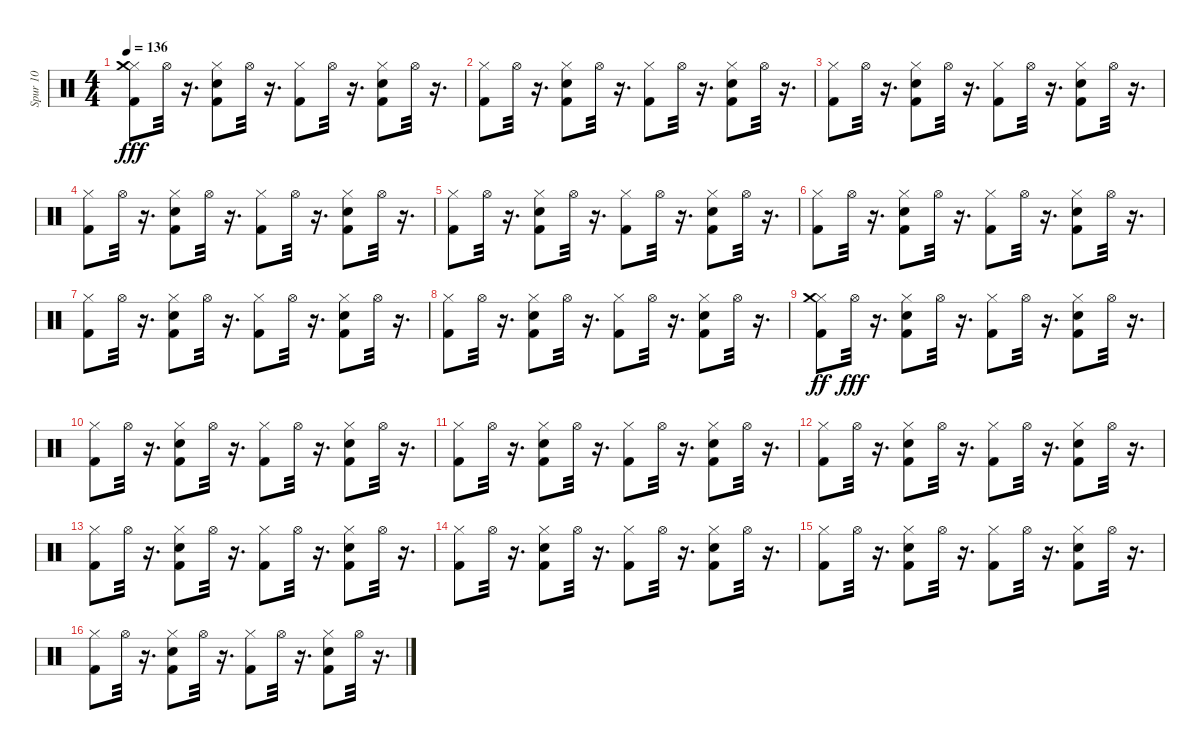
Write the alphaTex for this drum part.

\track ("Spur 10" "Spur 10") {instrument percussion}
\staff {score}
\articulation defaults
\ts (4 4)
\tempo 136
\clef neutral
\ks c
("Hi-Hat (closed)" "Kick (hit) 2" "Crash medium (hit)").8{dy fff} "Hi-Hat (open)".32 r.16{d} ("Snare (hit) 2" "Hi-Hat (closed)" "Kick (hit) 2").8 "Hi-Hat (open)".32 r.16{d} ("Hi-Hat (closed)" "Kick (hit) 2").8 "Hi-Hat (open)".32 r.16{d} ("Snare (hit) 2" "Hi-Hat (closed)" "Kick (hit) 2").8 "Hi-Hat (open)".32 r.16{d} |
("Hi-Hat (closed)" "Kick (hit) 2").8 "Hi-Hat (open)".32 r.16{d} ("Snare (hit) 2" "Hi-Hat (closed)" "Kick (hit) 2").8 "Hi-Hat (open)".32 r.16{d} ("Hi-Hat (closed)" "Kick (hit) 2").8 "Hi-Hat (open)".32 r.16{d} ("Snare (hit) 2" "Hi-Hat (closed)" "Kick (hit) 2").8 "Hi-Hat (open)".32 r.16{d} |
("Hi-Hat (closed)" "Kick (hit) 2").8 "Hi-Hat (open)".32 r.16{d} ("Snare (hit) 2" "Hi-Hat (closed)" "Kick (hit) 2").8 "Hi-Hat (open)".32 r.16{d} ("Hi-Hat (closed)" "Kick (hit) 2").8 "Hi-Hat (open)".32 r.16{d} ("Hi-Hat (closed)" "Kick (hit) 2" "Snare (hit) 2").8 "Hi-Hat (open)".32 r.16{d} |
("Hi-Hat (closed)" "Kick (hit) 2").8 "Hi-Hat (open)".32 r.16{d} ("Hi-Hat (closed)" "Kick (hit) 2" "Snare (hit) 2").8 "Hi-Hat (open)".32 r.16{d} ("Hi-Hat (closed)" "Kick (hit) 2").8 "Hi-Hat (open)".32 r.16{d} ("Snare (hit) 2" "Hi-Hat (closed)" "Kick (hit) 2").8 "Hi-Hat (open)".32 r.16{d} |
("Hi-Hat (closed)" "Kick (hit) 2").8 "Hi-Hat (open)".32 r.16{d} ("Snare (hit) 2" "Hi-Hat (closed)" "Kick (hit) 2").8 "Hi-Hat (open)".32 r.16{d} ("Hi-Hat (closed)" "Kick (hit) 2").8 "Hi-Hat (open)".32 r.16{d} ("Hi-Hat (closed)" "Kick (hit) 2" "Snare (hit) 2").8 "Hi-Hat (open)".32 r.16{d} |
("Hi-Hat (closed)" "Kick (hit) 2").8 "Hi-Hat (open)".32 r.16{d} ("Hi-Hat (closed)" "Kick (hit) 2" "Snare (hit) 2").8 "Hi-Hat (open)".32 r.16{d} ("Hi-Hat (closed)" "Kick (hit) 2").8 "Hi-Hat (open)".32 r.16{d} ("Snare (hit) 2" "Hi-Hat (closed)" "Kick (hit) 2").8 "Hi-Hat (open)".32 r.16{d} |
("Hi-Hat (closed)" "Kick (hit) 2").8 "Hi-Hat (open)".32 r.16{d} ("Snare (hit) 2" "Hi-Hat (closed)" "Kick (hit) 2").8 "Hi-Hat (open)".32 r.16{d} ("Hi-Hat (closed)" "Kick (hit) 2").8 "Hi-Hat (open)".32 r.16{d} ("Snare (hit) 2" "Hi-Hat (closed)" "Kick (hit) 2").8 "Hi-Hat (open)".32 r.16{d} |
("Hi-Hat (closed)" "Kick (hit) 2").8 "Hi-Hat (open)".32 r.16{d} ("Hi-Hat (closed)" "Kick (hit) 2" "Snare (hit) 2").8 "Hi-Hat (open)".32 r.16{d} ("Hi-Hat (closed)" "Kick (hit) 2").8 "Hi-Hat (open)".32 r.16{d} ("Hi-Hat (closed)" "Kick (hit) 2" "Snare (hit) 2").8 "Hi-Hat (open)".32 r.16{d} |
("Hi-Hat (closed)" "Kick (hit) 2" "Crash medium (hit)").8{dy ff} "Hi-Hat (open)".32{dy fff} r.16{d} ("Hi-Hat (closed)" "Kick (hit) 2" "Snare (hit) 2").8 "Hi-Hat (open)".32 r.16{d} ("Hi-Hat (closed)" "Kick (hit) 2").8 "Hi-Hat (open)".32 r.16{d} ("Hi-Hat (closed)" "Kick (hit) 2" "Snare (hit) 2").8 "Hi-Hat (open)".32 r.16{d} |
("Hi-Hat (closed)" "Kick (hit) 2").8 "Hi-Hat (open)".32 r.16{d} ("Snare (hit) 2" "Hi-Hat (closed)" "Kick (hit) 2").8 "Hi-Hat (open)".32 r.16{d} ("Hi-Hat (closed)" "Kick (hit) 2").8 "Hi-Hat (open)".32 r.16{d} ("Snare (hit) 2" "Hi-Hat (closed)" "Kick (hit) 2").8 "Hi-Hat (open)".32 r.16{d} |
("Hi-Hat (closed)" "Kick (hit) 2").8 "Hi-Hat (open)".32 r.16{d} ("Hi-Hat (closed)" "Kick (hit) 2" "Snare (hit) 2").8 "Hi-Hat (open)".32 r.16{d} ("Hi-Hat (closed)" "Kick (hit) 2").8 "Hi-Hat (open)".32 r.16{d} ("Hi-Hat (closed)" "Kick (hit) 2" "Snare (hit) 2").8 "Hi-Hat (open)".32 r.16{d} |
("Hi-Hat (closed)" "Kick (hit) 2").8 "Hi-Hat (open)".32 r.16{d} ("Snare (hit) 2" "Hi-Hat (closed)" "Kick (hit) 2").8 "Hi-Hat (open)".32 r.16{d} ("Hi-Hat (closed)" "Kick (hit) 2").8 "Hi-Hat (open)".32 r.16{d} ("Snare (hit) 2" "Hi-Hat (closed)" "Kick (hit) 2").8 "Hi-Hat (open)".32 r.16{d} |
("Hi-Hat (closed)" "Kick (hit) 2").8 "Hi-Hat (open)".32 r.16{d} ("Snare (hit) 2" "Hi-Hat (closed)" "Kick (hit) 2").8 "Hi-Hat (open)".32 r.16{d} ("Hi-Hat (closed)" "Kick (hit) 2").8 "Hi-Hat (open)".32 r.16{d} ("Snare (hit) 2" "Hi-Hat (closed)" "Kick (hit) 2").8 "Hi-Hat (open)".32 r.16{d} |
("Hi-Hat (closed)" "Kick (hit) 2").8 "Hi-Hat (open)".32 r.16{d} ("Snare (hit) 2" "Hi-Hat (closed)" "Kick (hit) 2").8 "Hi-Hat (open)".32 r.16{d} ("Hi-Hat (closed)" "Kick (hit) 2").8 "Hi-Hat (open)".32 r.16{d} ("Hi-Hat (closed)" "Kick (hit) 2" "Snare (hit) 2").8 "Hi-Hat (open)".32 r.16{d} |
("Hi-Hat (closed)" "Kick (hit) 2").8 "Hi-Hat (open)".32 r.16{d} ("Hi-Hat (closed)" "Kick (hit) 2" "Snare (hit) 2").8 "Hi-Hat (open)".32 r.16{d} ("Hi-Hat (closed)" "Kick (hit) 2").8 "Hi-Hat (open)".32 r.16{d} ("Snare (hit) 2" "Hi-Hat (closed)" "Kick (hit) 2").8 "Hi-Hat (open)".32 r.16{d} |
("Hi-Hat (closed)" "Kick (hit) 2").8 "Hi-Hat (open)".32 r.16{d} ("Snare (hit) 2" "Hi-Hat (closed)" "Kick (hit) 2").8 "Hi-Hat (open)".32 r.16{d} ("Hi-Hat (closed)" "Kick (hit) 2").8 "Hi-Hat (open)".32 r.16{d} ("Hi-Hat (closed)" "Kick (hit) 2" "Snare (hit) 2").8 "Hi-Hat (open)".32 r.16{d}
